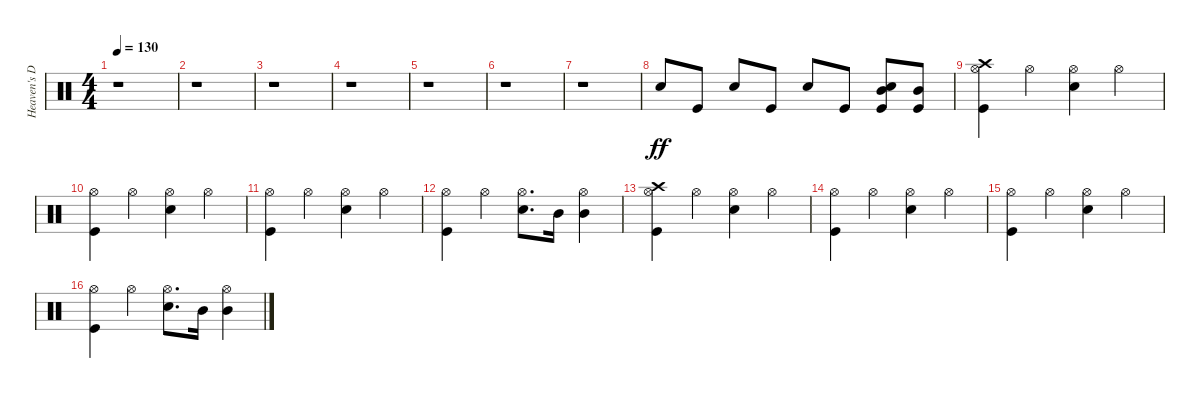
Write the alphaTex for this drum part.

\track ("Heaven's Door" "Heaven's D") {instrument percussion}
\staff {score}
\articulation defaults
\ts (4 4)
\tempo 130
\clef neutral
\ks c
r.1{dy ff} |
r.1 |
r.1 |
r.1 |
r.1 |
r.1 |
r.1 |
"Electric Snare (hit)".8 "Kick (hit)".8 "Electric Snare (hit)".8 "Kick (hit)".8 "Electric Snare (hit)".8 "Kick (hit)".8 ("Mid Tom (hit)" "Electric Snare (hit)" "Kick (hit)").8 ("Mid Tom (hit)" "Kick (hit)").8 |
("Crash high (hit)" "Hi-Hat (open)" "Kick (hit)").4 "Hi-Hat (open)".4 ("Hi-Hat (open)" "Electric Snare (hit)").4 "Hi-Hat (open)".4 |
("Hi-Hat (open)" "Kick (hit)").4 "Hi-Hat (open)".4 ("Electric Snare (hit)" "Hi-Hat (open)").4 "Hi-Hat (open)".4 |
("Kick (hit)" "Hi-Hat (open)").4 "Hi-Hat (open)".4 ("Electric Snare (hit)" "Hi-Hat (open)").4 "Hi-Hat (open)".4 |
("Hi-Hat (open)" "Kick (hit)").4 "Hi-Hat (open)".4 ("Electric Snare (hit)" "Hi-Hat (open)").8{d} "Mid Tom (hit)".16 ("Mid Tom (hit)" "Hi-Hat (open)").4 |
("Crash high (hit)" "Hi-Hat (open)" "Kick (hit)").4 "Hi-Hat (open)".4 ("Hi-Hat (open)" "Electric Snare (hit)").4 "Hi-Hat (open)".4 |
("Hi-Hat (open)" "Kick (hit)").4 "Hi-Hat (open)".4 ("Electric Snare (hit)" "Hi-Hat (open)").4 "Hi-Hat (open)".4 |
("Kick (hit)" "Hi-Hat (open)").4 "Hi-Hat (open)".4 ("Electric Snare (hit)" "Hi-Hat (open)").4 "Hi-Hat (open)".4 |
("Hi-Hat (open)" "Kick (hit)").4 "Hi-Hat (open)".4 ("Electric Snare (hit)" "Hi-Hat (open)").8{d} "Mid Tom (hit)".16 ("Mid Tom (hit)" "Hi-Hat (open)").4
